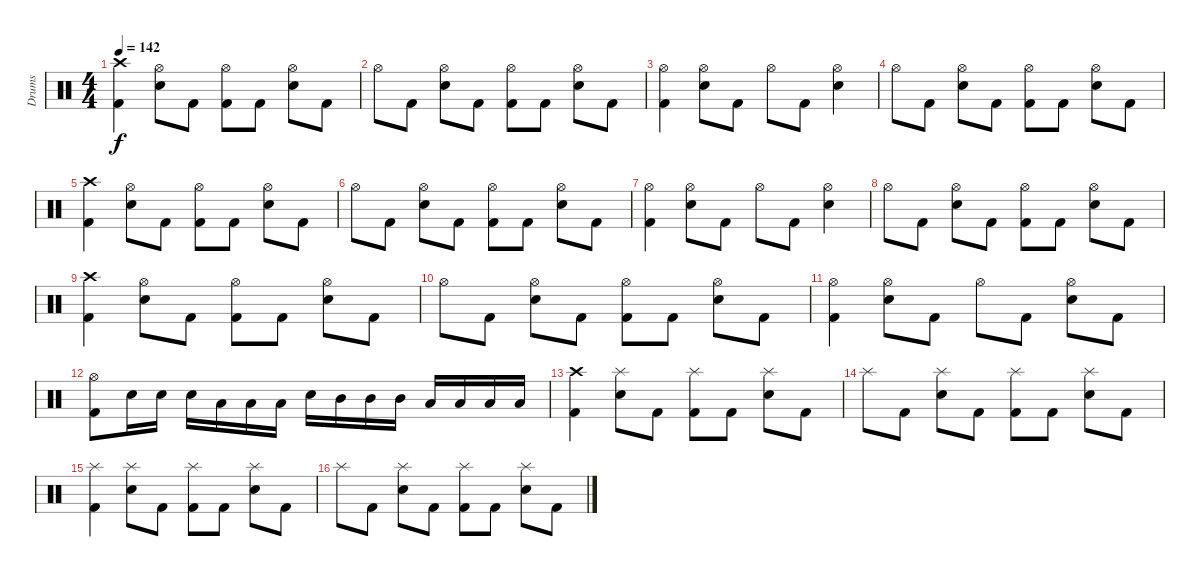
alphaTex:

\track ("Drums" "Drums") {instrument percussion}
\staff {score}
\articulation defaults
\ts (4 4)
\tempo 142
\clef neutral
\ks c
("Crash high (hit)" "Kick (hit) 2").4{dy f} ("Hi-Hat (open)" "Electric Snare (hit)").8 "Kick (hit) 2".8 ("Hi-Hat (open)" "Kick (hit) 2").8 "Kick (hit) 2".8 ("Hi-Hat (open)" "Electric Snare (hit)").8 "Kick (hit) 2".8 |
"Hi-Hat (open)".8 "Kick (hit) 2".8 ("Hi-Hat (open)" "Electric Snare (hit)").8 "Kick (hit) 2".8 ("Hi-Hat (open)" "Kick (hit) 2").8 "Kick (hit) 2".8 ("Hi-Hat (open)" "Electric Snare (hit)").8 "Kick (hit) 2".8 |
("Hi-Hat (open)" "Kick (hit) 2").4 ("Hi-Hat (open)" "Electric Snare (hit)").8 "Kick (hit) 2".8 "Hi-Hat (open)".8 "Kick (hit) 2".8 ("Hi-Hat (open)" "Electric Snare (hit)").4 |
"Hi-Hat (open)".8 "Kick (hit) 2".8 ("Hi-Hat (open)" "Electric Snare (hit)").8 "Kick (hit) 2".8 ("Hi-Hat (open)" "Kick (hit) 2").8 "Kick (hit) 2".8 ("Hi-Hat (open)" "Electric Snare (hit)").8 "Kick (hit) 2".8 |
("Crash high (hit)" "Kick (hit) 2").4 ("Hi-Hat (open)" "Electric Snare (hit)").8 "Kick (hit) 2".8 ("Hi-Hat (open)" "Kick (hit) 2").8 "Kick (hit) 2".8 ("Hi-Hat (open)" "Electric Snare (hit)").8 "Kick (hit) 2".8 |
"Hi-Hat (open)".8 "Kick (hit) 2".8 ("Hi-Hat (open)" "Electric Snare (hit)").8 "Kick (hit) 2".8 ("Hi-Hat (open)" "Kick (hit) 2").8 "Kick (hit) 2".8 ("Hi-Hat (open)" "Electric Snare (hit)").8 "Kick (hit) 2".8 |
("Hi-Hat (open)" "Kick (hit) 2").4 ("Hi-Hat (open)" "Electric Snare (hit)").8 "Kick (hit) 2".8 "Hi-Hat (open)".8 "Kick (hit) 2".8 ("Hi-Hat (open)" "Electric Snare (hit)").4 |
"Hi-Hat (open)".8 "Kick (hit) 2".8 ("Hi-Hat (open)" "Electric Snare (hit)").8 "Kick (hit) 2".8 ("Hi-Hat (open)" "Kick (hit) 2").8 "Kick (hit) 2".8 ("Hi-Hat (open)" "Electric Snare (hit)").8 "Kick (hit) 2".8 |
("Crash high (hit)" "Kick (hit) 2").4 ("Hi-Hat (open)" "Electric Snare (hit)").8 "Kick (hit) 2".8 ("Hi-Hat (open)" "Kick (hit) 2").8 "Kick (hit) 2".8 ("Hi-Hat (open)" "Electric Snare (hit)").8 "Kick (hit) 2".8 |
"Hi-Hat (open)".8 "Kick (hit) 2".8 ("Hi-Hat (open)" "Electric Snare (hit)").8 "Kick (hit) 2".8 ("Hi-Hat (open)" "Kick (hit) 2").8 "Kick (hit) 2".8 ("Hi-Hat (open)" "Electric Snare (hit)").8 "Kick (hit) 2".8 |
("Hi-Hat (open)" "Kick (hit) 2").4 ("Hi-Hat (open)" "Electric Snare (hit)").8 "Kick (hit) 2".8 "Hi-Hat (open)".8 "Kick (hit) 2".8 ("Hi-Hat (open)" "Electric Snare (hit)").8 "Kick (hit) 2".8 |
("Hi-Hat (open)" "Kick (hit) 2").8 "Electric Snare (hit)".16 "Electric Snare (hit)".16 "Electric Snare (hit)".16 "Low Tom (hit)".16 "Low Tom (hit)".16 "Low Tom (hit)".16 "Electric Snare (hit)".16 "Mid Tom (hit)".16 "Mid Tom (hit)".16 "Mid Tom (hit)".16 "Low Floor Tom (hit)".16 "Low Floor Tom (hit)".16 "Low Floor Tom (hit)".16 "Low Floor Tom (hit)".16 |
("Crash high (hit)" "Kick (hit) 2").4 ("Splash (hit)" "Electric Snare (hit)").8 "Kick (hit) 2".8 ("Splash (hit)" "Kick (hit) 2").8 "Kick (hit) 2".8 ("Splash (hit)" "Electric Snare (hit)").8 "Kick (hit) 2".8 |
"Splash (hit)".8 "Kick (hit) 2".8 ("Splash (hit)" "Electric Snare (hit)").8 "Kick (hit) 2".8 ("Splash (hit)" "Kick (hit) 2").8 "Kick (hit) 2".8 ("Splash (hit)" "Electric Snare (hit)").8 "Kick (hit) 2".8 |
("Splash (hit)" "Kick (hit) 2").4 ("Splash (hit)" "Electric Snare (hit)").8 "Kick (hit) 2".8 ("Splash (hit)" "Kick (hit) 2").8 "Kick (hit) 2".8 ("Splash (hit)" "Electric Snare (hit)").8 "Kick (hit) 2".8 |
"Splash (hit)".8 "Kick (hit) 2".8 ("Splash (hit)" "Electric Snare (hit)").8 "Kick (hit) 2".8 ("Splash (hit)" "Kick (hit) 2").8 "Kick (hit) 2".8 ("Splash (hit)" "Electric Snare (hit)").8 "Kick (hit) 2".8
